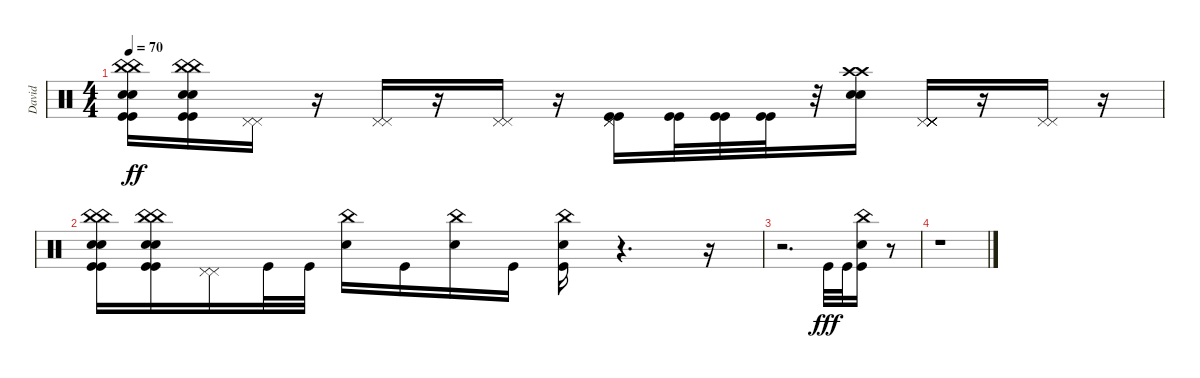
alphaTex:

\track ("David" "David") {instrument percussion}
\staff {score}
\articulation defaults
\ts (4 4)
\tempo 70
\clef neutral
\ks c
("Snare (hit) 2" "Snare (hit) 2" "Kick (hit)" "Kick (hit)" "China (hit)" "China (hit)").16{dy ff} ("Snare (hit) 2" "Snare (hit) 2" "Kick (hit)" "Kick (hit)" "China (hit)" "China (hit)").16 ("Pedal Hi-Hat (hit)" "Pedal Hi-Hat (hit)").16 r.16 ("Pedal Hi-Hat (hit)" "Pedal Hi-Hat (hit)").16 r.16 ("Pedal Hi-Hat (hit)" "Pedal Hi-Hat (hit)").16 r.16 ("Kick (hit)" "Kick (hit)" "Pedal Hi-Hat (hit)" "Pedal Hi-Hat (hit)").16 ("Kick (hit)" "Kick (hit)").32 ("Kick (hit)" "Kick (hit)").32 ("Kick (hit)" "Kick (hit)").32 r.32 ("Crash high (hit)" "Crash high (hit)" "Snare (hit) 2" "Snare (hit) 2").16 ("Pedal Hi-Hat (hit)" "Pedal Hi-Hat (hit)" "Pedal Hi-Hat (hit)" "Pedal Hi-Hat (hit)" "Pedal Hi-Hat (hit)" "Pedal Hi-Hat (hit)").16 r.16 ("Pedal Hi-Hat (hit)" "Pedal Hi-Hat (hit)").16 r.16 |
("Snare (hit) 2" "Snare (hit) 2" "Kick (hit)" "Kick (hit)" "China (hit)" "China (hit)").16 ("Snare (hit) 2" "Snare (hit) 2" "Kick (hit)" "Kick (hit)" "China (hit)" "China (hit)").16 ("Pedal Hi-Hat (hit)" "Pedal Hi-Hat (hit)").16 "Kick (hit)".32 "Kick (hit)".32 ("Snare (hit) 2" "China (hit)").16 "Kick (hit)".16 ("Snare (hit) 2" "China (hit)").16 "Kick (hit)".16 ("China (hit)" "Snare (hit) 2" "Kick (hit)").16 r.4{d} r.16 |
r.2{d} "Kick (hit)".32{dy fff} "Kick (hit)".32 ("China (hit)" "Kick (hit)" "Snare (hit) 2").16 r.8 |
r.1
